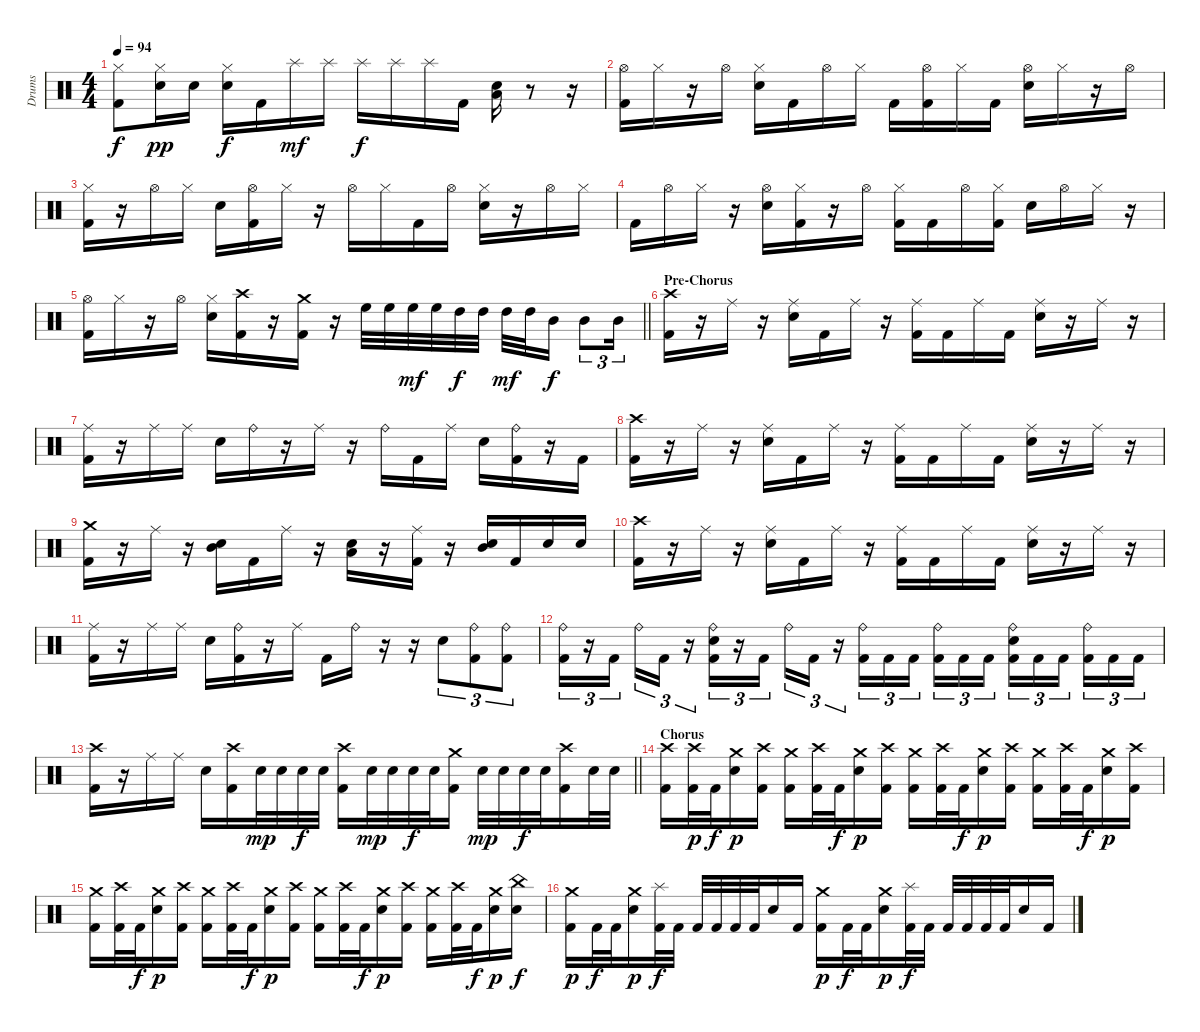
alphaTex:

\track ("Drums" "Drums") {instrument percussion}
\staff {score}
\articulation defaults
\ts (4 4)
\tempo 94
\clef neutral
\ks c
("Kick (hit) 2" "Hi-Hat (closed)").8{dy f} ("Hi-Hat (closed)" "Snare (hit) 2").16{dy pp} "Snare (hit) 2".16 ("Hi-Hat (closed)" "Snare (hit) 2").16{dy f} "Kick (hit) 2".16 "Splash (hit)".16{dy mf} "Splash (hit)".16 "Splash (hit)".16{dy f} "Splash (hit)".16 "Splash (hit)".16 "Kick (hit) 2".16 ("Snare (hit) 2" "Low Tom (hit)").16 r.8 r.16 |
("Hi-Hat (open)" "Kick (hit) 2").16 "Hi-Hat (closed)".16 r.16 "Hi-Hat (open)".16 ("Hi-Hat (closed)" "Snare (hit) 2").16 "Kick (hit) 2".16 "Hi-Hat (open)".16 "Hi-Hat (closed)".16 "Kick (hit) 2".16 ("Hi-Hat (open)" "Kick (hit) 2").16 "Hi-Hat (closed)".16 "Kick (hit) 2".16 ("Hi-Hat (open)" "Snare (hit) 2").16 "Hi-Hat (closed)".16 r.16 "Hi-Hat (open)".16 |
("Kick (hit) 2" "Hi-Hat (closed)").16 r.16 "Hi-Hat (open)".16 "Hi-Hat (closed)".16 "Snare (hit) 2".16 ("Hi-Hat (open)" "Kick (hit) 2").16 "Hi-Hat (closed)".16 r.16 "Hi-Hat (open)".16 "Hi-Hat (closed)".16 "Kick (hit) 2".16 "Hi-Hat (open)".16 ("Snare (hit) 2" "Hi-Hat (closed)").16 r.16 "Hi-Hat (open)".16 "Hi-Hat (closed)".16 |
"Kick (hit) 2".16 "Hi-Hat (open)".16 "Hi-Hat (closed)".16 r.16 ("Hi-Hat (open)" "Snare (hit) 2").16 ("Kick (hit) 2" "Hi-Hat (closed)").16 r.16 "Hi-Hat (open)".16 ("Kick (hit) 2" "Hi-Hat (closed)").16 "Kick (hit) 2".16 "Hi-Hat (open)".16 ("Kick (hit) 2" "Hi-Hat (closed)").16 "Snare (hit) 2".16 "Hi-Hat (open)".16 "Hi-Hat (closed)".16 r.16 |
\barLineRight lightlight
("Hi-Hat (open)" "Kick (hit) 2").16 "Hi-Hat (closed)".16 r.16 "Hi-Hat (open)".16 ("Hi-Hat (closed)" "Snare (hit) 2").16 ("Kick (hit) 2" "Crash high (hit)").16 r.16 ("Kick (hit) 2" "Crash medium (hit)").16 r.16 "High Floor Tom (hit)".32 "High Floor Tom (hit)".32 "High Floor Tom (hit)".32{dy mf} "High Floor Tom (hit)".32 "High Tom (hit)".32{dy f} "High Tom (hit)".32 "High Tom (hit)".32{dy mf} "High Tom (hit)".32 "Mid Tom (hit)".16{dy f} "Mid Tom (hit)".8{tu (3 2)} "Mid Tom (hit)".16{tu (3 2)} |
\section ("" "Pre-Chorus")
("Crash high (hit)" "Kick (hit) 2").16 r.16 "Ride (middle)".16 r.16 ("Ride (middle)" "Snare (hit) 2").16 "Kick (hit) 2".16 "Ride (middle)".16 r.16 ("Ride (middle)" "Kick (hit) 2").16 "Kick (hit) 2".16 "Ride (middle)".16 "Kick (hit) 2".16 ("Ride (middle)" "Snare (hit) 2").16 r.16 "Ride (middle)".16 r.16 |
("Kick (hit) 2" "Ride (middle)").16 r.16 "Ride (middle)".16 "Ride (middle)".16 "Snare (hit) 2".16 "Ride (bell)".16 r.16 "Ride (middle)".16 r.16 "Ride (bell)".16 "Kick (hit) 2".16 "Ride (middle)".16 "Snare (hit) 2".16 ("Ride (bell)" "Kick (hit) 2").16 r.16 "Kick (hit) 2".16 |
("Crash high (hit)" "Kick (hit) 2").16 r.16 "Ride (middle)".16 r.16 ("Ride (middle)" "Snare (hit) 2").16 "Kick (hit) 2".16 "Ride (middle)".16 r.16 ("Ride (middle)" "Kick (hit) 2").16 "Kick (hit) 2".16 "Ride (middle)".16 "Kick (hit) 2".16 ("Ride (middle)" "Snare (hit) 2").16 r.16 "Ride (middle)".16 r.16 |
("Crash medium (hit)" "Kick (hit) 2").16 r.16 "Ride (middle)".16 r.16 ("Snare (hit) 2" "Mid Tom (hit)").16 "Kick (hit) 2".16 "Ride (middle)".16 r.16 ("Snare (hit) 2" "Low Tom (hit)").16 r.16 ("Kick (hit) 2" "Ride (middle)").16 r.16 ("Snare (hit) 2" "Mid Tom (hit)").16 "Kick (hit) 2".16 "Snare (hit) 2".16 "Snare (hit) 2".16 |
("Crash high (hit)" "Kick (hit) 2").16 r.16 "Ride (middle)".16 r.16 ("Ride (middle)" "Snare (hit) 2").16 "Kick (hit) 2".16 "Ride (middle)".16 r.16 ("Ride (middle)" "Kick (hit) 2").16 "Kick (hit) 2".16 "Ride (middle)".16 "Kick (hit) 2".16 ("Ride (middle)" "Snare (hit) 2").16 r.16 "Ride (middle)".16 r.16 |
("Kick (hit) 2" "Ride (middle)").16 r.16 "Ride (middle)".16 "Ride (middle)".16 "Snare (hit) 2".16 ("Ride (bell)" "Kick (hit) 2").16 r.16 "Ride (middle)".16 "Kick (hit) 2".16 "Ride (bell)".16 r.16 r.16 "Snare (hit) 2".8{tu (3 2)} ("Ride (bell)" "Kick (hit) 2").8{tu (3 2)} ("Kick (hit) 2" "Ride (bell)").8{tu (3 2)} |
("Kick (hit) 2" "Ride (bell)").16{tu (3 2)} r.16{tu (3 2)} "Kick (hit) 2".16{tu (3 2) beam splitsecondary} "Ride (bell)".16{tu (3 2)} "Kick (hit) 2".16{tu (3 2)} r.16{tu (3 2)} ("Kick (hit) 2" "Ride (bell)" "Snare (hit) 2").16{tu (3 2)} r.16{tu (3 2)} "Kick (hit) 2".16{tu (3 2) beam splitsecondary} "Ride (bell)".16{tu (3 2)} "Kick (hit) 2".16{tu (3 2)} r.16{tu (3 2)} ("Kick (hit) 2" "Ride (bell)").16{tu (3 2)} "Kick (hit) 2".16{tu (3 2)} "Kick (hit) 2".16{tu (3 2) beam splitsecondary} ("Ride (bell)" "Kick (hit) 2").16{tu (3 2)} "Kick (hit) 2".16{tu (3 2)} "Kick (hit) 2".16{tu (3 2)} ("Kick (hit) 2" "Ride (bell)" "Snare (hit) 2").16{tu (3 2)} "Kick (hit) 2".16{tu (3 2)} "Kick (hit) 2".16{tu (3 2) beam splitsecondary} ("Ride (bell)" "Kick (hit) 2").16{tu (3 2)} "Kick (hit) 2".16{tu (3 2)} "Kick (hit) 2".16{tu (3 2)} |
\barLineRight lightlight
("Kick (hit) 2" "Crash high (hit)").16 r.16 "Ride (middle)".16 "Ride (middle)".16 "Snare (hit) 2".16 ("Kick (hit) 2" "Crash high (hit)").16 "Snare (hit) 2".32{dy mp} "Snare (hit) 2".32 "Snare (hit) 2".32{dy f} "Snare (hit) 2".32 ("Kick (hit) 2" "Crash high (hit)").16 "Snare (hit) 2".32{dy mp} "Snare (hit) 2".32 "Snare (hit) 2".32{dy f} "Snare (hit) 2".32 ("Kick (hit) 2" "Crash medium (hit)").16 "Snare (hit) 2".32{dy mp} "Snare (hit) 2".32 "Snare (hit) 2".32{dy f} "Snare (hit) 2".32 ("Kick (hit) 2" "Crash high (hit)").16 "Snare (hit) 2".32 "Snare (hit) 2".32 |
\section ("" "Chorus")
("Kick (hit) 2" "Crash high (hit)").16 ("Kick (hit) 2" "Crash high (hit)").32{dy p} "Kick (hit) 2".32{dy f} ("Snare (hit) 2" "Crash medium (hit)").16{dy p} ("Kick (hit) 2" "Crash high (hit)").16 ("Kick (hit) 2" "Crash medium (hit)").16 ("Kick (hit) 2" "Crash high (hit)").32 "Kick (hit) 2".32{dy f} ("Snare (hit) 2" "Crash medium (hit)").16{dy p} ("Kick (hit) 2" "Crash high (hit)").16 ("Kick (hit) 2" "Crash medium (hit)").16 ("Kick (hit) 2" "Crash high (hit)").32 "Kick (hit) 2".32{dy f} ("Snare (hit) 2" "Crash medium (hit)").16{dy p} ("Kick (hit) 2" "Crash high (hit)").16 ("Kick (hit) 2" "Crash medium (hit)").16 ("Kick (hit) 2" "Crash high (hit)").32 "Kick (hit) 2".32{dy f} ("Snare (hit) 2" "Crash medium (hit)").16{dy p} ("Kick (hit) 2" "Crash high (hit)").16 |
("Kick (hit) 2" "Crash medium (hit)").16 ("Kick (hit) 2" "Crash high (hit)").32 "Kick (hit) 2".32{dy f} ("Snare (hit) 2" "Crash medium (hit)").16{dy p} ("Kick (hit) 2" "Crash high (hit)").16 ("Kick (hit) 2" "Crash medium (hit)").16 ("Kick (hit) 2" "Crash high (hit)").32 "Kick (hit) 2".32{dy f} ("Snare (hit) 2" "Crash medium (hit)").16{dy p} ("Kick (hit) 2" "Crash high (hit)").16 ("Kick (hit) 2" "Crash medium (hit)").16 ("Kick (hit) 2" "Crash high (hit)").32 "Kick (hit) 2".32{dy f} ("Snare (hit) 2" "Crash medium (hit)").16{dy p} ("Kick (hit) 2" "Crash high (hit)").16 ("Kick (hit) 2" "Crash medium (hit)").16 ("Kick (hit) 2" "Crash high (hit)").32 "Kick (hit) 2".32{dy f} ("Snare (hit) 2" "Crash medium (hit)").16{dy p} ("China (hit)" "Snare (hit) 2").16{dy f} |
("Kick (hit) 2" "Crash medium (hit)").16{dy p} "Kick (hit) 2".32{dy f} "Kick (hit) 2".32 ("Snare (hit) 2" "Crash medium (hit)").16{dy p} ("Kick (hit) 2" "Splash (hit)").32{dy f} "Kick (hit) 2".32 "Kick (hit) 2".32 "Kick (hit) 2".32 "Kick (hit) 2".32 "Kick (hit) 2".32 "Snare (hit) 2".16 "Kick (hit) 2".16 ("Kick (hit) 2" "Crash medium (hit)").16{dy p} "Kick (hit) 2".32{dy f} "Kick (hit) 2".32 ("Snare (hit) 2" "Crash medium (hit)").16{dy p} ("Kick (hit) 2" "Splash (hit)").32{dy f} "Kick (hit) 2".32 "Kick (hit) 2".32 "Kick (hit) 2".32 "Kick (hit) 2".32 "Kick (hit) 2".32 "Snare (hit) 2".16 "Kick (hit) 2".16
